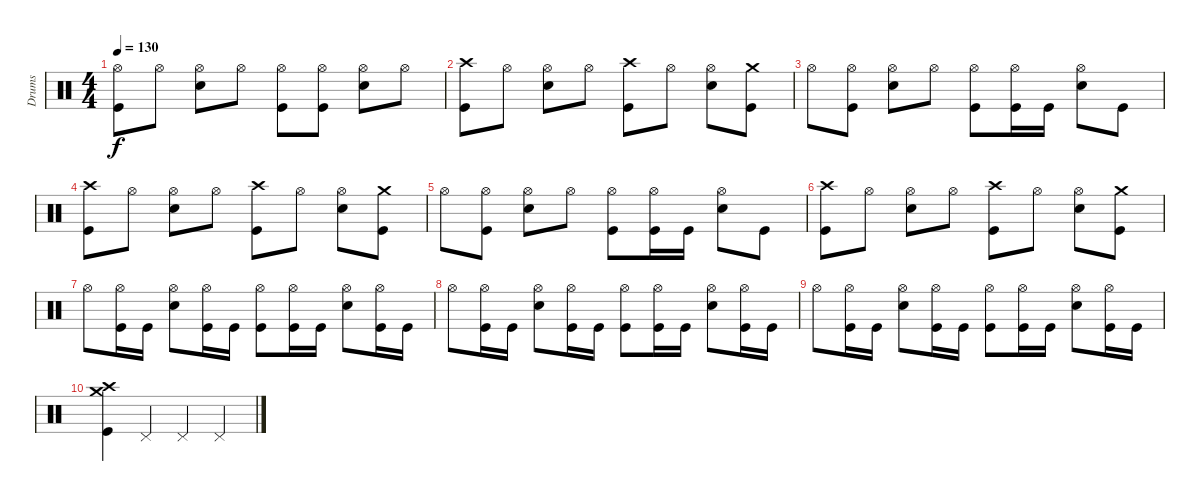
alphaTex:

\track ("Drums" "Drums") {instrument percussion}
\staff {score}
\articulation defaults
\ts (4 4)
\tempo 130
\clef neutral
\ks c
("Hi-Hat (open)" "Kick (hit)").8{dy f} "Hi-Hat (open)".8 ("Hi-Hat (open)" "Snare (hit) 2").8 "Hi-Hat (open)".8 ("Hi-Hat (open)" "Kick (hit)").8 ("Hi-Hat (open)" "Kick (hit)").8 ("Hi-Hat (open)" "Snare (hit) 2").8 "Hi-Hat (open)".8 |
("Crash high (hit)" "Kick (hit)").8 "Hi-Hat (open)".8 ("Hi-Hat (open)" "Snare (hit) 2").8 "Hi-Hat (open)".8 ("Crash high (hit)" "Kick (hit)").8 "Hi-Hat (open)".8 ("Hi-Hat (open)" "Snare (hit) 2").8 ("Crash medium (hit)" "Kick (hit)").8 |
"Hi-Hat (open)".8 ("Hi-Hat (open)" "Kick (hit)").8 ("Hi-Hat (open)" "Snare (hit) 2").8 "Hi-Hat (open)".8 ("Hi-Hat (open)" "Kick (hit)").8 ("Hi-Hat (open)" "Kick (hit)").16 "Kick (hit)".16 ("Hi-Hat (open)" "Snare (hit) 2").8 "Kick (hit)".8 |
("Crash high (hit)" "Kick (hit)").8 "Hi-Hat (open)".8 ("Hi-Hat (open)" "Snare (hit) 2").8 "Hi-Hat (open)".8 ("Crash high (hit)" "Kick (hit)").8 "Hi-Hat (open)".8 ("Hi-Hat (open)" "Snare (hit) 2").8 ("Crash medium (hit)" "Kick (hit)").8 |
"Hi-Hat (open)".8 ("Hi-Hat (open)" "Kick (hit)").8 ("Hi-Hat (open)" "Snare (hit) 2").8 "Hi-Hat (open)".8 ("Hi-Hat (open)" "Kick (hit)").8 ("Hi-Hat (open)" "Kick (hit)").16 "Kick (hit)".16 ("Hi-Hat (open)" "Snare (hit) 2").8 "Kick (hit)".8 |
("Crash high (hit)" "Kick (hit)").8 "Hi-Hat (open)".8 ("Hi-Hat (open)" "Snare (hit) 2").8 "Hi-Hat (open)".8 ("Crash high (hit)" "Kick (hit)").8 "Hi-Hat (open)".8 ("Hi-Hat (open)" "Snare (hit) 2").8 ("Crash medium (hit)" "Kick (hit)").8 |
"Hi-Hat (open)".8 ("Hi-Hat (open)" "Kick (hit)").16 "Kick (hit)".16 ("Hi-Hat (open)" "Snare (hit) 2").8 ("Hi-Hat (open)" "Kick (hit)").16 "Kick (hit)".16 ("Hi-Hat (open)" "Kick (hit)").8 ("Hi-Hat (open)" "Kick (hit)").16 "Kick (hit)".16 ("Hi-Hat (open)" "Snare (hit) 2").8 ("Hi-Hat (open)" "Kick (hit)").16 "Kick (hit)".16 |
"Hi-Hat (open)".8 ("Hi-Hat (open)" "Kick (hit)").16 "Kick (hit)".16 ("Hi-Hat (open)" "Snare (hit) 2").8 ("Hi-Hat (open)" "Kick (hit)").16 "Kick (hit)".16 ("Hi-Hat (open)" "Kick (hit)").8 ("Hi-Hat (open)" "Kick (hit)").16 "Kick (hit)".16 ("Hi-Hat (open)" "Snare (hit) 2").8 ("Hi-Hat (open)" "Kick (hit)").16 "Kick (hit)".16 |
"Hi-Hat (open)".8 ("Hi-Hat (open)" "Kick (hit)").16 "Kick (hit)".16 ("Hi-Hat (open)" "Snare (hit) 2").8 ("Hi-Hat (open)" "Kick (hit)").16 "Kick (hit)".16 ("Hi-Hat (open)" "Kick (hit)").8 ("Hi-Hat (open)" "Kick (hit)").16 "Kick (hit)".16 ("Hi-Hat (open)" "Snare (hit) 2").8 ("Hi-Hat (open)" "Kick (hit)").16 "Kick (hit)".16 |
("Crash high (hit)" "Crash medium (hit)" "Kick (hit)").4 "Pedal Hi-Hat (hit)".4 "Pedal Hi-Hat (hit)".4 "Pedal Hi-Hat (hit)".4
